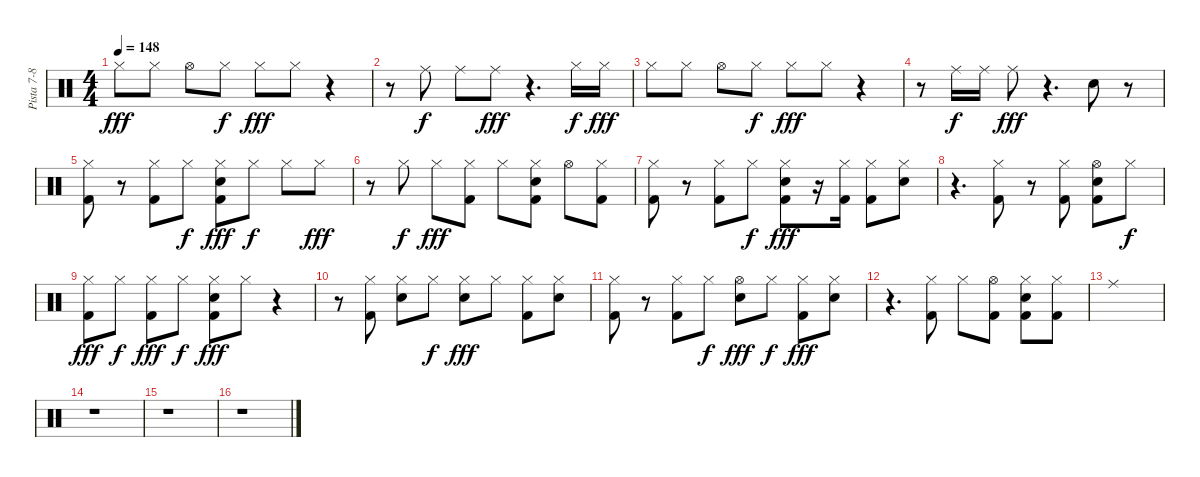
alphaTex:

\track ("Pista 7-8" "Pista 7-8") {instrument percussion}
\staff {score}
\articulation defaults
\ts (4 4)
\tempo 148
\clef neutral
\ks c "Hi-Hat (closed)".8{dy fff} "Hi-Hat (closed)".8 "Hi-Hat (open)".8 "Hi-Hat (closed)".8{dy f} "Hi-Hat (closed)".8{dy fff} "Hi-Hat (closed)".8
r.4 |
r.8 "Ride (middle)".8{dy f} "Ride (middle)".8 "Ride (middle)".8{dy fff} r.4{d} "Hi-Hat (closed)".16{dy f} "Hi-Hat (closed)".16{dy fff} |
"Hi-Hat (closed)".8 "Hi-Hat (closed)".8 "Hi-Hat (open)".8 "Hi-Hat (closed)".8{dy f} "Hi-Hat (closed)".8{dy fff} "Hi-Hat (closed)".8 r.4 |
r.8 "Ride (middle)".16{dy f} "Ride (middle)".16 "Ride (middle)".8{dy fff} r.4{d} "Electric Snare (hit)".8 r.8 |
("Hi-Hat (closed)" "Kick (hit) 2").8 r.8 ("Hi-Hat (closed)" "Kick (hit) 2").8 "Hi-Hat (closed)".8{dy f} ("Hi-Hat (closed)" "Electric Snare (hit)" "Kick (hit) 2").8{dy fff} "Hi-Hat (closed)".8{dy f} "Hi-Hat (closed)".8 "Hi-Hat (closed)".8{dy fff} |
r.8 "Hi-Hat (closed)".8{dy f} "Hi-Hat (closed)".8{dy fff} ("Hi-Hat (closed)" "Kick (hit) 2").8 "Hi-Hat (closed)".8 ("Hi-Hat (closed)" "Electric Snare (hit)" "Kick (hit) 2").8 "Hi-Hat (open)".8 ("Hi-Hat (closed)" "Kick (hit) 2").8 |
("Hi-Hat (closed)" "Kick (hit) 2").8 r.8 ("Hi-Hat (closed)" "Kick (hit) 2").8 "Hi-Hat (closed)".8{dy f} ("Hi-Hat (closed)" "Electric Snare (hit)" "Kick (hit) 2").8{dy fff} r.16 ("Hi-Hat (closed)" "Kick (hit) 2").16 ("Hi-Hat (closed)" "Kick (hit) 2").8 ("Hi-Hat (closed)" "Electric Snare (hit)").8 |
r.4{d} ("Hi-Hat (closed)" "Kick (hit) 2").8 r.8 ("Hi-Hat (closed)" "Kick (hit) 2").8 ("Hi-Hat (open)" "Kick (hit) 2" "Electric Snare (hit)").8 "Hi-Hat (closed)".8{dy f} |
("Hi-Hat (closed)" "Kick (hit) 2").8{dy fff} "Hi-Hat (closed)".8{dy f} ("Hi-Hat (closed)" "Kick (hit) 2").8{dy fff} "Hi-Hat (closed)".8{dy f} ("Hi-Hat (closed)" "Electric Snare (hit)" "Kick (hit) 2").8{dy fff} "Hi-Hat (closed)".8 r.4 |
r.8 ("Hi-Hat (closed)" "Kick (hit) 2").8 ("Hi-Hat (closed)" "Electric Snare (hit)").8 "Hi-Hat (closed)".8{dy f} ("Hi-Hat (closed)" "Electric Snare (hit)").8{dy fff} "Hi-Hat (closed)".8 ("Hi-Hat (closed)" "Kick (hit) 2").8 ("Hi-Hat (closed)" "Electric Snare (hit)").8 |
("Hi-Hat (closed)" "Kick (hit) 2").8 r.8 ("Hi-Hat (closed)" "Kick (hit) 2").8 "Hi-Hat (closed)".8{dy f} ("Hi-Hat (open)" "Electric Snare (hit)").8{dy fff} "Hi-Hat (closed)".8{dy f} ("Hi-Hat (closed)" "Kick (hit) 2").8{dy fff} ("Hi-Hat (closed)" "Electric Snare (hit)").8 |
r.4{d} ("Hi-Hat (closed)" "Kick (hit) 2").8 "Hi-Hat (closed)".8 ("Hi-Hat (open)" "Kick (hit) 2").8 ("Hi-Hat (closed)" "Kick (hit) 2" "Electric Snare (hit)").8 ("Hi-Hat (closed)" "Kick (hit) 2").8 |
"Ride (middle)".1 |
r.1 |
r.1 |
r.1
